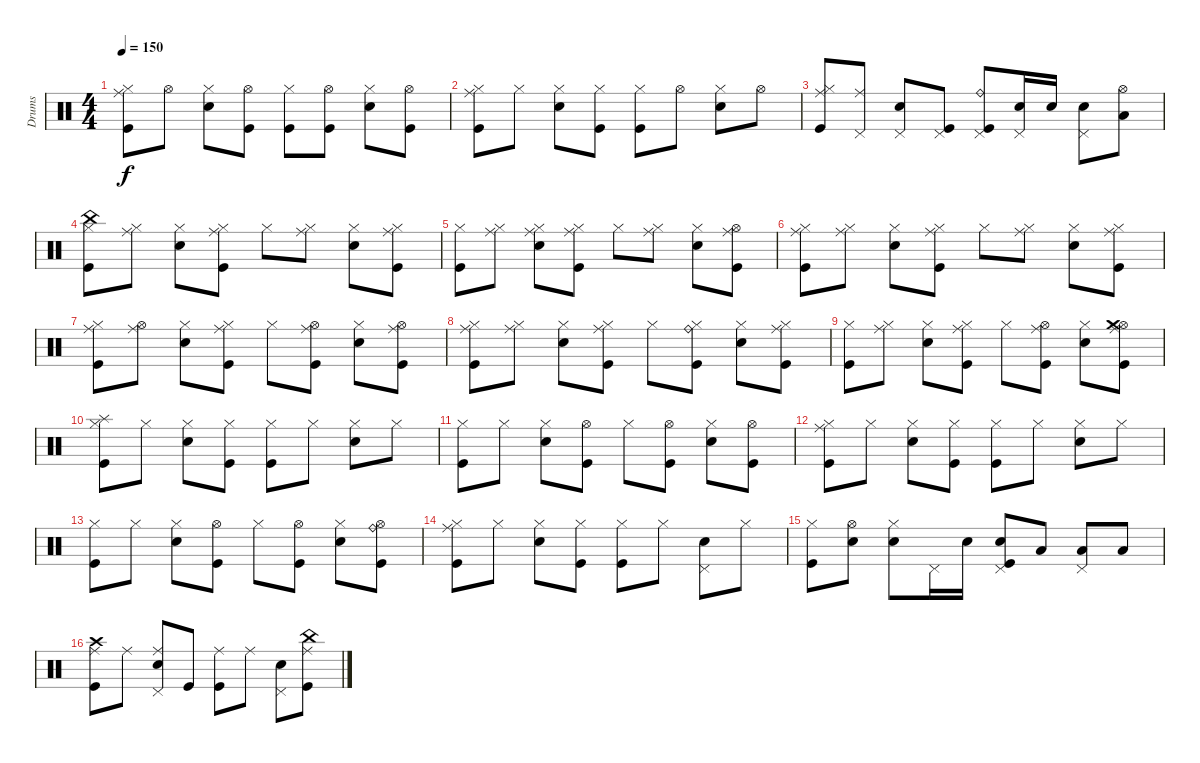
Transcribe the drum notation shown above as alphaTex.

\track ("Drums" "Drums") {instrument percussion}
\staff {score}
\articulation defaults
\ts (4 4)
\tempo 150
\clef neutral
\ks c
("Kick (hit)" "Hi-Hat (closed)" "Ride (middle)").8{dy f} "Hi-Hat (open)".8 ("Snare (hit) 2" "Hi-Hat (closed)").8 ("Kick (hit)" "Hi-Hat (open)").8 ("Kick (hit)" "Hi-Hat (closed)").8 ("Kick (hit)" "Hi-Hat (open)").8 ("Snare (hit) 2" "Hi-Hat (closed)").8 ("Kick (hit)" "Hi-Hat (open)").8 |
("Kick (hit)" "Hi-Hat (closed)" "Ride (middle)").8 "Hi-Hat (closed)".8 ("Snare (hit) 2" "Hi-Hat (closed)").8 ("Kick (hit)" "Hi-Hat (closed)").8 ("Kick (hit)" "Hi-Hat (closed)").8 "Hi-Hat (open)".8 ("Snare (hit) 2" "Hi-Hat (closed)").8 "Hi-Hat (open)".8 |
("Kick (hit)" "Hi-Hat (closed)" "Ride (middle)").8 ("Pedal Hi-Hat (hit)" "Ride (middle)").8 ("Snare (hit) 2" "Pedal Hi-Hat (hit)").8 ("Kick (hit)" "Pedal Hi-Hat (hit)").8 ("Kick (hit)" "Pedal Hi-Hat (hit)" "Ride (bell)").8 ("Snare (hit) 2" "Pedal Hi-Hat (hit)").16 "Snare (hit) 2".16 ("Snare (hit) 2" "Pedal Hi-Hat (hit)").8 ("Low Floor Tom (hit)" "Hi-Hat (open)").8 |
("Kick (hit)" "Hi-Hat (closed)" "China (hit)").8 ("Hi-Hat (closed)" "Ride (middle)").8 ("Snare (hit) 2" "Hi-Hat (closed)").8 ("Kick (hit)" "Hi-Hat (closed)" "Ride (middle)").8 "Hi-Hat (closed)".8 ("Hi-Hat (closed)" "Ride (middle)").8 ("Snare (hit) 2" "Hi-Hat (closed)").8 ("Hi-Hat (closed)" "Ride (middle)" "Kick (hit)").8 |
("Kick (hit)" "Hi-Hat (closed)").8 ("Hi-Hat (closed)" "Ride (middle)").8 ("Snare (hit) 2" "Hi-Hat (closed)" "Ride (middle)").8 ("Ride (middle)" "Kick (hit)" "Hi-Hat (closed)").8 "Hi-Hat (closed)".8 ("Hi-Hat (closed)" "Ride (middle)").8 ("Snare (hit) 2" "Hi-Hat (closed)").8 ("Ride (middle)" "Kick (hit)" "Hi-Hat (open)").8 |
("Ride (middle)" "Kick (hit)" "Hi-Hat (closed)").8 ("Hi-Hat (closed)" "Ride (middle)").8 ("Snare (hit) 2" "Hi-Hat (closed)").8 ("Kick (hit)" "Hi-Hat (closed)" "Ride (middle)").8 "Hi-Hat (closed)".8 ("Hi-Hat (closed)" "Ride (middle)").8 ("Snare (hit) 2" "Hi-Hat (closed)").8 ("Kick (hit)" "Hi-Hat (closed)" "Ride (middle)").8 |
("Kick (hit)" "Hi-Hat (closed)" "Ride (middle)").8 ("Hi-Hat (open)" "Ride (middle)").8 ("Snare (hit) 2" "Hi-Hat (closed)").8 ("Kick (hit)" "Hi-Hat (closed)" "Ride (middle)").8 "Hi-Hat (closed)".8 ("Kick (hit)" "Hi-Hat (open)" "Ride (middle)").8 ("Snare (hit) 2" "Hi-Hat (closed)").8 ("Kick (hit)" "Hi-Hat (open)" "Ride (middle)").8 |
("Kick (hit)" "Hi-Hat (closed)" "Ride (middle)").8 ("Hi-Hat (closed)" "Ride (middle)").8 ("Snare (hit) 2" "Hi-Hat (closed)").8 ("Kick (hit)" "Hi-Hat (closed)" "Ride (middle)").8 "Hi-Hat (closed)".8 ("Kick (hit)" "Hi-Hat (closed)" "Ride (bell)").8 ("Snare (hit) 2" "Hi-Hat (closed)").8 ("Kick (hit)" "Hi-Hat (closed)" "Ride (middle)").8 |
("Kick (hit)" "Hi-Hat (closed)").8 ("Hi-Hat (closed)" "Ride (middle)").8 ("Snare (hit) 2" "Hi-Hat (closed)").8 ("Kick (hit)" "Hi-Hat (closed)" "Ride (middle)").8 "Hi-Hat (closed)".8 ("Kick (hit)" "Hi-Hat (open)" "Ride (middle)").8 ("Snare (hit) 2" "Hi-Hat (closed)").8 ("Kick (hit)" "Hi-Hat (open)" "Ride (middle)" "Crash medium (hit)").8 |
("Kick (hit)" "Hi-Hat (closed)" "Splash (hit)").8 "Hi-Hat (closed)".8 ("Snare (hit) 2" "Hi-Hat (closed)").8 ("Kick (hit)" "Hi-Hat (closed)").8 ("Kick (hit)" "Hi-Hat (closed)").8 "Hi-Hat (closed)".8 ("Snare (hit) 2" "Hi-Hat (closed)").8 "Hi-Hat (closed)".8 |
("Kick (hit)" "Hi-Hat (closed)").8 "Hi-Hat (closed)".8 ("Snare (hit) 2" "Hi-Hat (closed)").8 ("Kick (hit)" "Hi-Hat (open)").8 "Hi-Hat (closed)".8 ("Kick (hit)" "Hi-Hat (open)").8 ("Snare (hit) 2" "Hi-Hat (closed)").8 ("Kick (hit)" "Hi-Hat (open)").8 |
("Kick (hit)" "Hi-Hat (closed)" "Ride (middle)").8 "Hi-Hat (closed)".8 ("Snare (hit) 2" "Hi-Hat (closed)").8 ("Kick (hit)" "Hi-Hat (closed)").8 ("Kick (hit)" "Hi-Hat (closed)").8 "Hi-Hat (closed)".8 ("Snare (hit) 2" "Hi-Hat (closed)").8 "Hi-Hat (closed)".8 |
("Kick (hit)" "Hi-Hat (closed)").8 "Hi-Hat (closed)".8 ("Snare (hit) 2" "Hi-Hat (closed)").8 ("Kick (hit)" "Hi-Hat (open)").8 "Hi-Hat (closed)".8 ("Kick (hit)" "Hi-Hat (open)").8 ("Snare (hit) 2" "Hi-Hat (closed)").8 ("Kick (hit)" "Hi-Hat (open)" "Ride (bell)").8 |
("Kick (hit)" "Hi-Hat (closed)" "Ride (middle)").8 "Hi-Hat (closed)".8 ("Snare (hit) 2" "Hi-Hat (closed)").8 ("Kick (hit)" "Hi-Hat (closed)").8 ("Kick (hit)" "Hi-Hat (closed)").8 "Hi-Hat (closed)".8 ("Snare (hit) 2" "Pedal Hi-Hat (hit)").8 "Hi-Hat (closed)".8 |
("Kick (hit)" "Hi-Hat (closed)").8 ("Snare (hit) 2" "Hi-Hat (open)").8 ("Snare (hit) 2" "Hi-Hat (closed)").8 "Pedal Hi-Hat (hit)".16 "Snare (hit) 2".16 ("Kick (hit)" "Snare (hit) 2" "Pedal Hi-Hat (hit)").8 "Low Tom (hit)".8 ("Low Floor Tom (hit)" "Pedal Hi-Hat (hit)").8 "Low Floor Tom (hit)".8 |
("Kick (hit)" "Crash high (hit)" "Ride (middle)").8 "Ride (middle)".8 ("Snare (hit) 2" "Pedal Hi-Hat (hit)" "Ride (middle)").8 "Kick (hit)".8 ("Kick (hit)" "Ride (middle)").8 "Ride (middle)".8 ("Snare (hit) 2" "Pedal Hi-Hat (hit)").8 ("Kick (hit)" "Ride (middle)" "China (hit)").8
